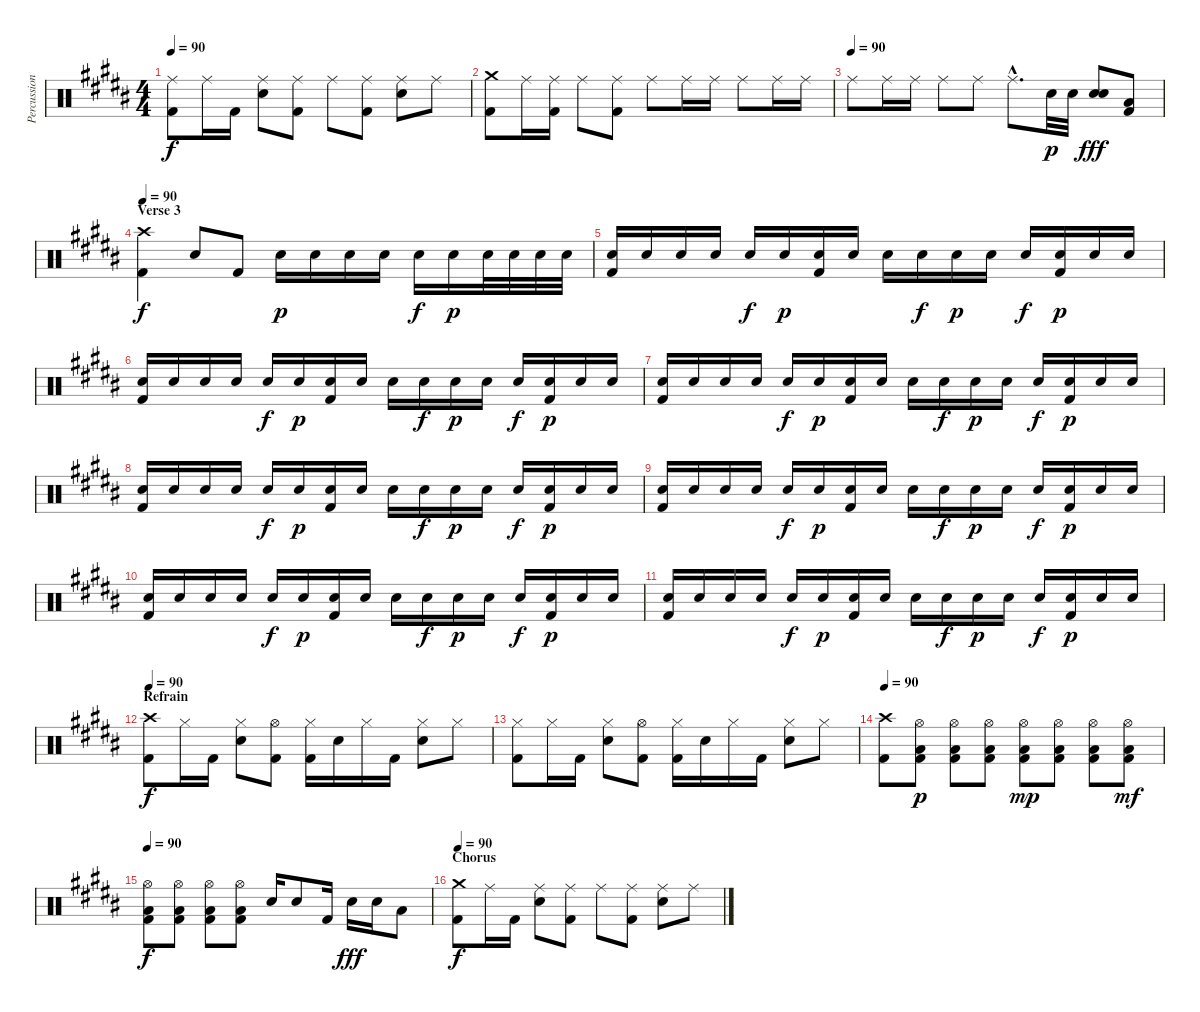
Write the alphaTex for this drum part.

\track ("Percussion" "Percussion") {instrument percussion}
\staff {score}
\articulation defaults
\ts (4 4)
\tempo 90
\clef neutral
\ks b
("Ride (middle)" "Kick (hit) 2").8{dy f} "Ride (middle)".16 "Kick (hit) 2".16 ("Ride (middle)" "Electric Snare (hit)").8 ("Ride (middle)" "Kick (hit) 2").8 "Ride (middle)".8 ("Ride (middle)" "Kick (hit) 2").8 ("Ride (middle)" "Electric Snare (hit)").8 "Ride (middle)".8 |
("Crash medium (hit)" "Kick (hit) 2").8 "Ride (middle)".16 ("Ride (middle)" "Kick (hit) 2").16 "Ride (middle)".8 ("Ride (middle)" "Kick (hit) 2").8 "Ride (middle)".8 "Ride (middle)".16 "Ride (middle)".16 "Ride (middle)".8 "Ride (middle)".16 "Ride (middle)".16 |
\tempo (90)
"Ride (middle)".8 "Ride (middle)".16 "Ride (middle)".16 "Ride (middle)".8 "Ride (middle)".8 "Ride (middle)"{hac}.8{d} "Electric Snare (hit)".32{dy p} "Electric Snare (hit)".32 ("Electric Snare (hit)" "Electric Snare (hit)").8{dy fff} ("Low Tom (hit)" "Kick (hit) 2").8 |
\section ("" "Verse 3")
\tempo 90
("Crash high (hit)" "Kick (hit) 2").4{dy f} "Electric Snare (hit)".8 "Kick (hit) 2".8 "Electric Snare (hit)".16{dy p} "Electric Snare (hit)".16 "Electric Snare (hit)".16 "Electric Snare (hit)".16 "Electric Snare (hit)".16{dy f} "Electric Snare (hit)".16{dy p} "Electric Snare (hit)".32 "Electric Snare (hit)".32 "Electric Snare (hit)".32 "Electric Snare (hit)".32 |
("Electric Snare (hit)" "Kick (hit) 2").16 "Electric Snare (hit)".16 "Electric Snare (hit)".16 "Electric Snare (hit)".16 "Electric Snare (hit)".16{dy f} "Electric Snare (hit)".16{dy p} ("Electric Snare (hit)" "Kick (hit) 2").16 "Electric Snare (hit)".16 "Electric Snare (hit)".16 "Electric Snare (hit)".16{dy f} "Electric Snare (hit)".16{dy p} "Electric Snare (hit)".16 "Electric Snare (hit)".16{dy f} ("Electric Snare (hit)" "Kick (hit) 2").16{dy p} "Electric Snare (hit)".16 "Electric Snare (hit)".16 |
("Electric Snare (hit)" "Kick (hit) 2").16 "Electric Snare (hit)".16 "Electric Snare (hit)".16 "Electric Snare (hit)".16 "Electric Snare (hit)".16{dy f} "Electric Snare (hit)".16{dy p} ("Electric Snare (hit)" "Kick (hit) 2").16 "Electric Snare (hit)".16 "Electric Snare (hit)".16 "Electric Snare (hit)".16{dy f} "Electric Snare (hit)".16{dy p} "Electric Snare (hit)".16 "Electric Snare (hit)".16{dy f} ("Electric Snare (hit)" "Kick (hit) 2").16{dy p} "Electric Snare (hit)".16 "Electric Snare (hit)".16 |
("Electric Snare (hit)" "Kick (hit) 2").16 "Electric Snare (hit)".16 "Electric Snare (hit)".16 "Electric Snare (hit)".16 "Electric Snare (hit)".16{dy f} "Electric Snare (hit)".16{dy p} ("Electric Snare (hit)" "Kick (hit) 2").16 "Electric Snare (hit)".16 "Electric Snare (hit)".16 "Electric Snare (hit)".16{dy f} "Electric Snare (hit)".16{dy p} "Electric Snare (hit)".16 "Electric Snare (hit)".16{dy f} ("Electric Snare (hit)" "Kick (hit) 2").16{dy p} "Electric Snare (hit)".16 "Electric Snare (hit)".16 |
("Electric Snare (hit)" "Kick (hit) 2").16 "Electric Snare (hit)".16 "Electric Snare (hit)".16 "Electric Snare (hit)".16 "Electric Snare (hit)".16{dy f} "Electric Snare (hit)".16{dy p} ("Electric Snare (hit)" "Kick (hit) 2").16 "Electric Snare (hit)".16 "Electric Snare (hit)".16 "Electric Snare (hit)".16{dy f} "Electric Snare (hit)".16{dy p} "Electric Snare (hit)".16 "Electric Snare (hit)".16{dy f} ("Electric Snare (hit)" "Kick (hit) 2").16{dy p} "Electric Snare (hit)".16 "Electric Snare (hit)".16 |
("Electric Snare (hit)" "Kick (hit) 2").16 "Electric Snare (hit)".16 "Electric Snare (hit)".16 "Electric Snare (hit)".16 "Electric Snare (hit)".16{dy f} "Electric Snare (hit)".16{dy p} ("Electric Snare (hit)" "Kick (hit) 2").16 "Electric Snare (hit)".16 "Electric Snare (hit)".16 "Electric Snare (hit)".16{dy f} "Electric Snare (hit)".16{dy p} "Electric Snare (hit)".16 "Electric Snare (hit)".16{dy f} ("Electric Snare (hit)" "Kick (hit) 2").16{dy p} "Electric Snare (hit)".16 "Electric Snare (hit)".16 |
("Electric Snare (hit)" "Kick (hit) 2").16 "Electric Snare (hit)".16 "Electric Snare (hit)".16 "Electric Snare (hit)".16 "Electric Snare (hit)".16{dy f} "Electric Snare (hit)".16{dy p} ("Electric Snare (hit)" "Kick (hit) 2").16 "Electric Snare (hit)".16 "Electric Snare (hit)".16 "Electric Snare (hit)".16{dy f} "Electric Snare (hit)".16{dy p} "Electric Snare (hit)".16 "Electric Snare (hit)".16{dy f} ("Electric Snare (hit)" "Kick (hit) 2").16{dy p} "Electric Snare (hit)".16 "Electric Snare (hit)".16 |
("Electric Snare (hit)" "Kick (hit) 2").16 "Electric Snare (hit)".16 "Electric Snare (hit)".16 "Electric Snare (hit)".16 "Electric Snare (hit)".16{dy f} "Electric Snare (hit)".16{dy p} ("Electric Snare (hit)" "Kick (hit) 2").16 "Electric Snare (hit)".16 "Electric Snare (hit)".16 "Electric Snare (hit)".16{dy f} "Electric Snare (hit)".16{dy p} "Electric Snare (hit)".16 "Electric Snare (hit)".16{dy f} ("Electric Snare (hit)" "Kick (hit) 2").16{dy p} "Electric Snare (hit)".16 "Electric Snare (hit)".16 |
\section ("" "Refrain")
\tempo 90
("Crash high (hit)" "Kick (hit) 2").8{dy f volume 14} "Hi-Hat (closed)".16 "Kick (hit) 2".16 ("Hi-Hat (closed)" "Electric Snare (hit)").8 ("Hi-Hat (open)" "Kick (hit) 2").8 ("Hi-Hat (closed)" "Kick (hit) 2").16 "Electric Snare (hit)".16 "Hi-Hat (closed)".16 "Kick (hit) 2".16 ("Hi-Hat (closed)" "Electric Snare (hit)").8 "Hi-Hat (closed)".8 |
("Hi-Hat (closed)" "Kick (hit) 2").8 "Hi-Hat (closed)".16 "Kick (hit) 2".16 ("Hi-Hat (closed)" "Electric Snare (hit)").8 ("Hi-Hat (open)" "Kick (hit) 2").8 ("Hi-Hat (closed)" "Kick (hit) 2").16 "Electric Snare (hit)".16 "Hi-Hat (closed)".16 "Kick (hit) 2".16 ("Hi-Hat (closed)" "Electric Snare (hit)").8 "Hi-Hat (closed)".8 |
\tempo 90
("Crash high (hit)" "Kick (hit) 2").8 ("Hi-Hat (open)" "Low Tom (hit)" "Kick (hit) 2").8{dy p} ("Hi-Hat (open)" "Low Tom (hit)" "Kick (hit) 2").8 ("Hi-Hat (open)" "Low Tom (hit)" "Kick (hit) 2").8 ("Hi-Hat (open)" "Low Tom (hit)" "Kick (hit) 2").8{dy mp} ("Hi-Hat (open)" "Low Tom (hit)" "Kick (hit) 2").8 ("Hi-Hat (open)" "Low Tom (hit)" "Kick (hit) 2").8 ("Hi-Hat (open)" "Low Tom (hit)" "Kick (hit) 2").8{dy mf} |
\tempo 90
("Hi-Hat (open)" "Low Tom (hit)" "Kick (hit) 2").8{dy f} ("Hi-Hat (open)" "Low Tom (hit)" "Kick (hit) 2").8 ("Hi-Hat (open)" "Low Tom (hit)" "Kick (hit) 2").8 ("Hi-Hat (open)" "Low Tom (hit)" "Kick (hit) 2").8 "Electric Snare (hit)".16 "Electric Snare (hit)".8 "Kick (hit) 2".16 "Electric Snare (hit)".16{dy fff} "Electric Snare (hit)".16 "Low Tom (hit)".8 |
\section ("" "Chorus")
\tempo 90
("Crash medium (hit)" "Kick (hit) 2").8{dy f} "Ride (middle)".16 "Kick (hit) 2".16 ("Ride (middle)" "Electric Snare (hit)").8 ("Ride (middle)" "Kick (hit) 2").8 "Ride (middle)".8 ("Ride (middle)" "Kick (hit) 2").8 ("Ride (middle)" "Electric Snare (hit)").8 "Ride (middle)".8
